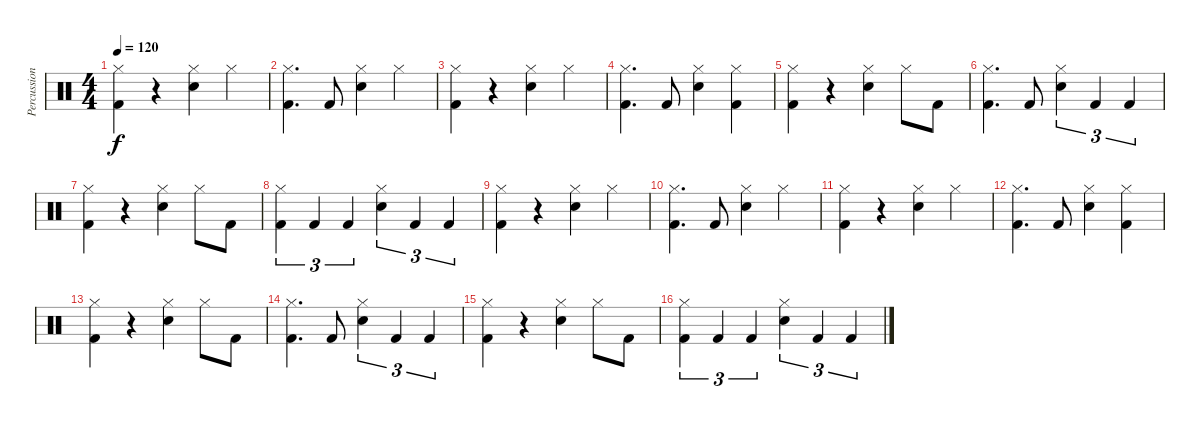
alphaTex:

\track ("Percussions" "Percussion") {instrument percussion}
\staff {score}
\articulation defaults
\ts (4 4)
\tempo 120
\clef neutral
\ks c
("Hi-Hat (closed)" "Kick (hit) 2").4{dy f} r.4 ("Hi-Hat (closed)" "Snare (hit) 2").4 "Hi-Hat (closed)".4 |
("Hi-Hat (closed)" "Kick (hit) 2").4{d} "Kick (hit) 2".8 ("Hi-Hat (closed)" "Snare (hit) 2").4 "Hi-Hat (closed)".4 |
("Hi-Hat (closed)" "Kick (hit) 2").4 r.4 ("Hi-Hat (closed)" "Snare (hit) 2").4 "Hi-Hat (closed)".4 |
("Hi-Hat (closed)" "Kick (hit) 2").4{d} "Kick (hit) 2".8 ("Hi-Hat (closed)" "Snare (hit) 2").4 ("Hi-Hat (closed)" "Kick (hit) 2").4 |
("Hi-Hat (closed)" "Kick (hit) 2").4 r.4 ("Hi-Hat (closed)" "Snare (hit) 2").4 "Hi-Hat (closed)".8 "Kick (hit) 2".8 |
("Hi-Hat (closed)" "Kick (hit) 2").4{d} "Kick (hit) 2".8 ("Hi-Hat (closed)" "Snare (hit) 2").4{tu (3 2)} "Kick (hit) 2".4{tu (3 2)} "Kick (hit) 2".4{tu (3 2)} |
("Hi-Hat (closed)" "Kick (hit) 2").4 r.4 ("Hi-Hat (closed)" "Snare (hit) 2").4 "Hi-Hat (closed)".8 "Kick (hit) 2".8 |
("Hi-Hat (closed)" "Kick (hit) 2").4{tu (3 2)} "Kick (hit) 2".4{tu (3 2)} "Kick (hit) 2".4{tu (3 2)} ("Hi-Hat (closed)" "Snare (hit) 2").4{tu (3 2)} "Kick (hit) 2".4{tu (3 2)} "Kick (hit) 2".4{tu (3 2)} |
("Hi-Hat (closed)" "Kick (hit) 2").4 r.4 ("Hi-Hat (closed)" "Snare (hit) 2").4 "Hi-Hat (closed)".4 |
("Hi-Hat (closed)" "Kick (hit) 2").4{d} "Kick (hit) 2".8 ("Hi-Hat (closed)" "Snare (hit) 2").4 "Hi-Hat (closed)".4 |
("Hi-Hat (closed)" "Kick (hit) 2").4 r.4 ("Hi-Hat (closed)" "Snare (hit) 2").4 "Hi-Hat (closed)".4 |
("Hi-Hat (closed)" "Kick (hit) 2").4{d} "Kick (hit) 2".8 ("Hi-Hat (closed)" "Snare (hit) 2").4 ("Hi-Hat (closed)" "Kick (hit) 2").4 |
("Hi-Hat (closed)" "Kick (hit) 2").4 r.4 ("Hi-Hat (closed)" "Snare (hit) 2").4 "Hi-Hat (closed)".8 "Kick (hit) 2".8 |
("Hi-Hat (closed)" "Kick (hit) 2").4{d} "Kick (hit) 2".8 ("Hi-Hat (closed)" "Snare (hit) 2").4{tu (3 2)} "Kick (hit) 2".4{tu (3 2)} "Kick (hit) 2".4{tu (3 2)} |
("Hi-Hat (closed)" "Kick (hit) 2").4 r.4 ("Hi-Hat (closed)" "Snare (hit) 2").4 "Hi-Hat (closed)".8 "Kick (hit) 2".8 |
("Hi-Hat (closed)" "Kick (hit) 2").4{tu (3 2)} "Kick (hit) 2".4{tu (3 2)} "Kick (hit) 2".4{tu (3 2)} ("Hi-Hat (closed)" "Snare (hit) 2").4{tu (3 2)} "Kick (hit) 2".4{tu (3 2)} "Kick (hit) 2".4{tu (3 2)}
